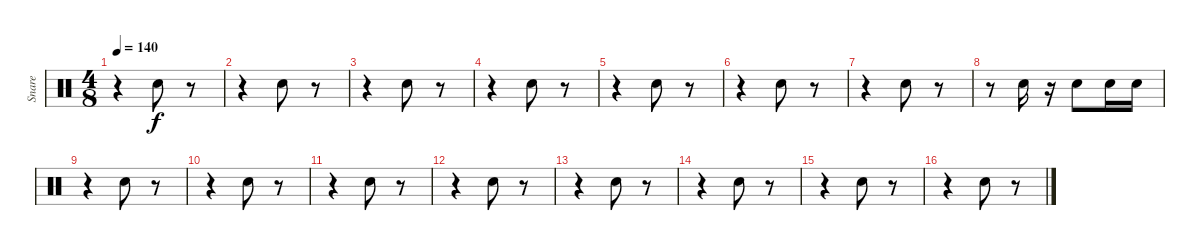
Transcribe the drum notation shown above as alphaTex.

\track ("Snare" "Snare") {instrument percussion}
\staff {score}
\articulation defaults
\ts (4 8)
\tempo 140
\clef neutral
\ks c
r.4{dy f} "Snare (hit) 2".8 r.8 |
r.4 "Snare (hit) 2".8 r.8 |
r.4 "Snare (hit) 2".8 r.8 |
r.4 "Snare (hit) 2".8 r.8 |
r.4 "Snare (hit) 2".8 r.8 |
r.4 "Snare (hit) 2".8 r.8 |
r.4 "Snare (hit) 2".8 r.8 |
r.8 "Snare (hit) 2".16 r.16 "Snare (hit) 2".8 "Snare (hit) 2".16 "Snare (hit) 2".16 |
r.4 "Snare (hit) 2".8 r.8 |
r.4 "Snare (hit) 2".8 r.8 |
r.4 "Snare (hit) 2".8 r.8 |
r.4 "Snare (hit) 2".8 r.8 |
r.4 "Snare (hit) 2".8 r.8 |
r.4 "Snare (hit) 2".8 r.8 |
r.4 "Snare (hit) 2".8 r.8 |
r.4 "Snare (hit) 2".8 r.8
